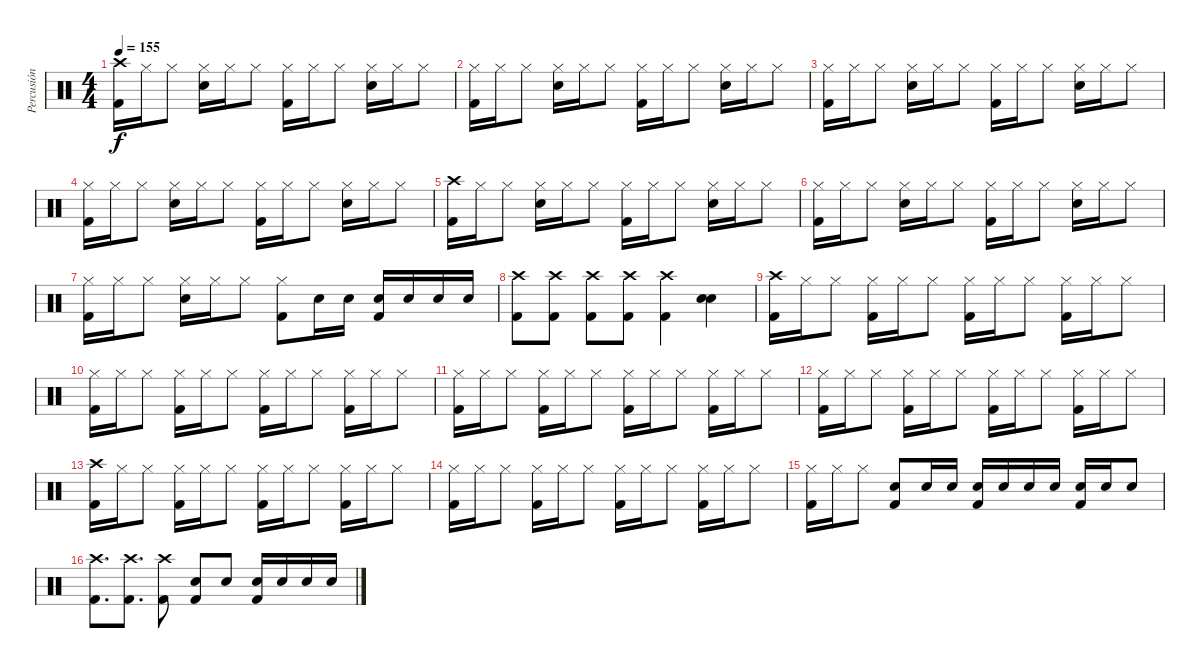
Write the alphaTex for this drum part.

\track ("Percusión" "Percusión") {instrument percussion}
\staff {score}
\articulation defaults
\ts (4 4)
\tempo 155
\clef neutral
\ks c
("Crash high (hit)" "Kick (hit) 2").16{dy f} "Hi-Hat (closed)".16 "Hi-Hat (closed)".8 ("Hi-Hat (closed)" "Electric Snare (hit)").16 "Hi-Hat (closed)".16 "Hi-Hat (closed)".8 ("Hi-Hat (closed)" "Kick (hit) 2").16 "Hi-Hat (closed)".16 "Hi-Hat (closed)".8 ("Hi-Hat (closed)" "Electric Snare (hit)").16 "Hi-Hat (closed)".16 "Hi-Hat (closed)".8 |
("Hi-Hat (closed)" "Kick (hit) 2").16 "Hi-Hat (closed)".16 "Hi-Hat (closed)".8 ("Hi-Hat (closed)" "Electric Snare (hit)").16 "Hi-Hat (closed)".16 "Hi-Hat (closed)".8 ("Hi-Hat (closed)" "Kick (hit) 2").16 "Hi-Hat (closed)".16 "Hi-Hat (closed)".8 ("Hi-Hat (closed)" "Electric Snare (hit)").16 "Hi-Hat (closed)".16 "Hi-Hat (closed)".8 |
("Hi-Hat (closed)" "Kick (hit) 2").16 "Hi-Hat (closed)".16 "Hi-Hat (closed)".8 ("Hi-Hat (closed)" "Electric Snare (hit)").16 "Hi-Hat (closed)".16 "Hi-Hat (closed)".8 ("Hi-Hat (closed)" "Kick (hit) 2").16 "Hi-Hat (closed)".16 "Hi-Hat (closed)".8 ("Hi-Hat (closed)" "Electric Snare (hit)").16 "Hi-Hat (closed)".16 "Hi-Hat (closed)".8 |
("Hi-Hat (closed)" "Kick (hit) 2").16 "Hi-Hat (closed)".16 "Hi-Hat (closed)".8 ("Hi-Hat (closed)" "Electric Snare (hit)").16 "Hi-Hat (closed)".16 "Hi-Hat (closed)".8 ("Hi-Hat (closed)" "Kick (hit) 2").16 "Hi-Hat (closed)".16 "Hi-Hat (closed)".8 ("Hi-Hat (closed)" "Electric Snare (hit)").16 "Hi-Hat (closed)".16 "Hi-Hat (closed)".8 |
("Crash high (hit)" "Kick (hit) 2").16 "Hi-Hat (closed)".16 "Hi-Hat (closed)".8 ("Hi-Hat (closed)" "Electric Snare (hit)").16 "Hi-Hat (closed)".16 "Hi-Hat (closed)".8 ("Hi-Hat (closed)" "Kick (hit) 2").16 "Hi-Hat (closed)".16 "Hi-Hat (closed)".8 ("Hi-Hat (closed)" "Electric Snare (hit)").16 "Hi-Hat (closed)".16 "Hi-Hat (closed)".8 |
("Hi-Hat (closed)" "Kick (hit) 2").16 "Hi-Hat (closed)".16 "Hi-Hat (closed)".8 ("Hi-Hat (closed)" "Electric Snare (hit)").16 "Hi-Hat (closed)".16 "Hi-Hat (closed)".8 ("Hi-Hat (closed)" "Kick (hit) 2").16 "Hi-Hat (closed)".16 "Hi-Hat (closed)".8 ("Hi-Hat (closed)" "Electric Snare (hit)").16 "Hi-Hat (closed)".16 "Hi-Hat (closed)".8 |
("Hi-Hat (closed)" "Kick (hit) 2").16 "Hi-Hat (closed)".16 "Hi-Hat (closed)".8 ("Hi-Hat (closed)" "Electric Snare (hit)").16 "Hi-Hat (closed)".16 "Hi-Hat (closed)".8 ("Hi-Hat (closed)" "Kick (hit) 2").8 "Electric Snare (hit)".16 "Electric Snare (hit)".16 ("Electric Snare (hit)" "Kick (hit) 2").16 "Electric Snare (hit)".16 "Electric Snare (hit)".16 "Electric Snare (hit)".16 |
("Crash high (hit)" "Kick (hit) 2").8 ("Crash high (hit)" "Kick (hit) 2").8 ("Crash high (hit)" "Kick (hit) 2").8 ("Crash high (hit)" "Kick (hit) 2").8 ("Crash high (hit)" "Kick (hit) 2").4 ("Electric Snare (hit)" "Electric Snare (hit)").4 |
("Crash high (hit)" "Kick (hit) 2").16 "Hi-Hat (closed)".16 "Hi-Hat (closed)".8 ("Hi-Hat (closed)" "Kick (hit) 2").16 "Hi-Hat (closed)".16 "Hi-Hat (closed)".8 ("Hi-Hat (closed)" "Kick (hit) 2").16 "Hi-Hat (closed)".16 "Hi-Hat (closed)".8 ("Hi-Hat (closed)" "Kick (hit) 2").16 "Hi-Hat (closed)".16 "Hi-Hat (closed)".8 |
("Hi-Hat (closed)" "Kick (hit) 2").16 "Hi-Hat (closed)".16 "Hi-Hat (closed)".8 ("Hi-Hat (closed)" "Kick (hit) 2").16 "Hi-Hat (closed)".16 "Hi-Hat (closed)".8 ("Hi-Hat (closed)" "Kick (hit) 2").16 "Hi-Hat (closed)".16 "Hi-Hat (closed)".8 ("Hi-Hat (closed)" "Kick (hit) 2").16 "Hi-Hat (closed)".16 "Hi-Hat (closed)".8 |
("Hi-Hat (closed)" "Kick (hit) 2").16 "Hi-Hat (closed)".16 "Hi-Hat (closed)".8 ("Hi-Hat (closed)" "Kick (hit) 2").16 "Hi-Hat (closed)".16 "Hi-Hat (closed)".8 ("Hi-Hat (closed)" "Kick (hit) 2").16 "Hi-Hat (closed)".16 "Hi-Hat (closed)".8 ("Hi-Hat (closed)" "Kick (hit) 2").16 "Hi-Hat (closed)".16 "Hi-Hat (closed)".8 |
("Hi-Hat (closed)" "Kick (hit) 2").16 "Hi-Hat (closed)".16 "Hi-Hat (closed)".8 ("Hi-Hat (closed)" "Kick (hit) 2").16 "Hi-Hat (closed)".16 "Hi-Hat (closed)".8 ("Hi-Hat (closed)" "Kick (hit) 2").16 "Hi-Hat (closed)".16 "Hi-Hat (closed)".8 ("Hi-Hat (closed)" "Kick (hit) 2").16 "Hi-Hat (closed)".16 "Hi-Hat (closed)".8 |
("Crash high (hit)" "Kick (hit) 2").16 "Hi-Hat (closed)".16 "Hi-Hat (closed)".8 ("Hi-Hat (closed)" "Kick (hit) 2").16 "Hi-Hat (closed)".16 "Hi-Hat (closed)".8 ("Hi-Hat (closed)" "Kick (hit) 2").16 "Hi-Hat (closed)".16 "Hi-Hat (closed)".8 ("Hi-Hat (closed)" "Kick (hit) 2").16 "Hi-Hat (closed)".16 "Hi-Hat (closed)".8 |
("Hi-Hat (closed)" "Kick (hit) 2").16 "Hi-Hat (closed)".16 "Hi-Hat (closed)".8 ("Hi-Hat (closed)" "Kick (hit) 2").16 "Hi-Hat (closed)".16 "Hi-Hat (closed)".8 ("Hi-Hat (closed)" "Kick (hit) 2").16 "Hi-Hat (closed)".16 "Hi-Hat (closed)".8 ("Hi-Hat (closed)" "Kick (hit) 2").16 "Hi-Hat (closed)".16 "Hi-Hat (closed)".8 |
("Hi-Hat (closed)" "Kick (hit) 2").16 "Hi-Hat (closed)".16 "Hi-Hat (closed)".8 ("Electric Snare (hit)" "Kick (hit) 2").8 "Electric Snare (hit)".16 "Electric Snare (hit)".16 ("Electric Snare (hit)" "Kick (hit) 2").16 "Electric Snare (hit)".16 "Electric Snare (hit)".16 "Electric Snare (hit)".16 ("Electric Snare (hit)" "Kick (hit) 2").16 "Electric Snare (hit)".16 "Electric Snare (hit)".8 |
("Crash high (hit)" "Kick (hit) 2").8{d} ("Crash high (hit)" "Kick (hit) 2").8{d} ("Crash high (hit)" "Kick (hit) 2").8 ("Electric Snare (hit)" "Kick (hit) 2").8 "Electric Snare (hit)".8 ("Electric Snare (hit)" "Kick (hit) 2").16 "Electric Snare (hit)".16 "Electric Snare (hit)".16 "Electric Snare (hit)".16
